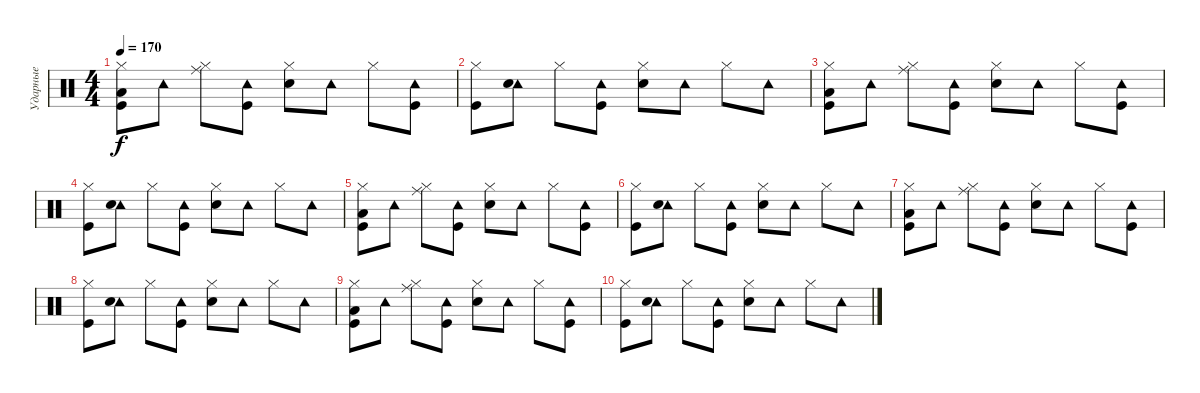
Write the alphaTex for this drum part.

\track ("Ударные" "Ударные") {instrument percussion}
\staff {score}
\articulation defaults
\ts (4 4)
\tempo 170
\clef neutral
\ks c
("Hi-Hat (closed)" "Kick (hit)" "Low Floor Tom (hit)").8{dy f volume 8 balance 16} "Tambourine (hit)".8 ("Hi-Hat (closed)" "Ride (middle)").8 ("Tambourine (hit)" "Kick (hit)").8 ("Hi-Hat (closed)" "Electric Snare (hit)").8 "Tambourine (hit)".8 "Hi-Hat (closed)".8 ("Tambourine (hit)" "Kick (hit)").8 |
("Hi-Hat (closed)" "Kick (hit)").8{volume 8 balance 8} ("Tambourine (hit)" "Electric Snare (hit)").8 "Hi-Hat (closed)".8 ("Tambourine (hit)" "Kick (hit)").8 ("Hi-Hat (closed)" "Electric Snare (hit)").8 "Tambourine (hit)".8 "Hi-Hat (closed)".8 "Tambourine (hit)".8 |
("Hi-Hat (closed)" "Kick (hit)" "Low Floor Tom (hit)").8{volume 8 balance 0} "Tambourine (hit)".8 ("Hi-Hat (closed)" "Ride (middle)").8 ("Tambourine (hit)" "Kick (hit)").8 ("Hi-Hat (closed)" "Electric Snare (hit)").8 "Tambourine (hit)".8 "Hi-Hat (closed)".8 ("Tambourine (hit)" "Kick (hit)").8 |
("Hi-Hat (closed)" "Kick (hit)").8{volume 8 balance 8} ("Tambourine (hit)" "Electric Snare (hit)").8 "Hi-Hat (closed)".8 ("Tambourine (hit)" "Kick (hit)").8 ("Hi-Hat (closed)" "Electric Snare (hit)").8 "Tambourine (hit)".8 "Hi-Hat (closed)".8 "Tambourine (hit)".8 |
("Hi-Hat (closed)" "Kick (hit)" "Low Floor Tom (hit)").8{volume 8 balance 16} "Tambourine (hit)".8 ("Hi-Hat (closed)" "Ride (middle)").8 ("Tambourine (hit)" "Kick (hit)").8 ("Hi-Hat (closed)" "Electric Snare (hit)").8 "Tambourine (hit)".8 "Hi-Hat (closed)".8 ("Tambourine (hit)" "Kick (hit)").8 |
("Hi-Hat (closed)" "Kick (hit)").8{volume 8 balance 8} ("Tambourine (hit)" "Electric Snare (hit)").8 "Hi-Hat (closed)".8 ("Tambourine (hit)" "Kick (hit)").8 ("Hi-Hat (closed)" "Electric Snare (hit)").8 "Tambourine (hit)".8 "Hi-Hat (closed)".8 "Tambourine (hit)".8 |
("Hi-Hat (closed)" "Kick (hit)" "Low Floor Tom (hit)").8{volume 8 balance 0} "Tambourine (hit)".8 ("Hi-Hat (closed)" "Ride (middle)").8 ("Tambourine (hit)" "Kick (hit)").8 ("Hi-Hat (closed)" "Electric Snare (hit)").8 "Tambourine (hit)".8 "Hi-Hat (closed)".8 ("Tambourine (hit)" "Kick (hit)").8 |
("Hi-Hat (closed)" "Kick (hit)").8{volume 8 balance 8} ("Tambourine (hit)" "Electric Snare (hit)").8 "Hi-Hat (closed)".8 ("Tambourine (hit)" "Kick (hit)").8 ("Hi-Hat (closed)" "Electric Snare (hit)").8 "Tambourine (hit)".8 "Hi-Hat (closed)".8 "Tambourine (hit)".8 |
("Hi-Hat (closed)" "Kick (hit)" "Low Floor Tom (hit)").8{volume 8 balance 16} "Tambourine (hit)".8 ("Hi-Hat (closed)" "Ride (middle)").8 ("Tambourine (hit)" "Kick (hit)").8 ("Hi-Hat (closed)" "Electric Snare (hit)").8 "Tambourine (hit)".8 "Hi-Hat (closed)".8 ("Tambourine (hit)" "Kick (hit)").8 |
("Hi-Hat (closed)" "Kick (hit)").8{volume 8 balance 8} ("Tambourine (hit)" "Electric Snare (hit)").8 "Hi-Hat (closed)".8 ("Tambourine (hit)" "Kick (hit)").8 ("Hi-Hat (closed)" "Electric Snare (hit)").8 "Tambourine (hit)".8 "Hi-Hat (closed)".8 "Tambourine (hit)".8
